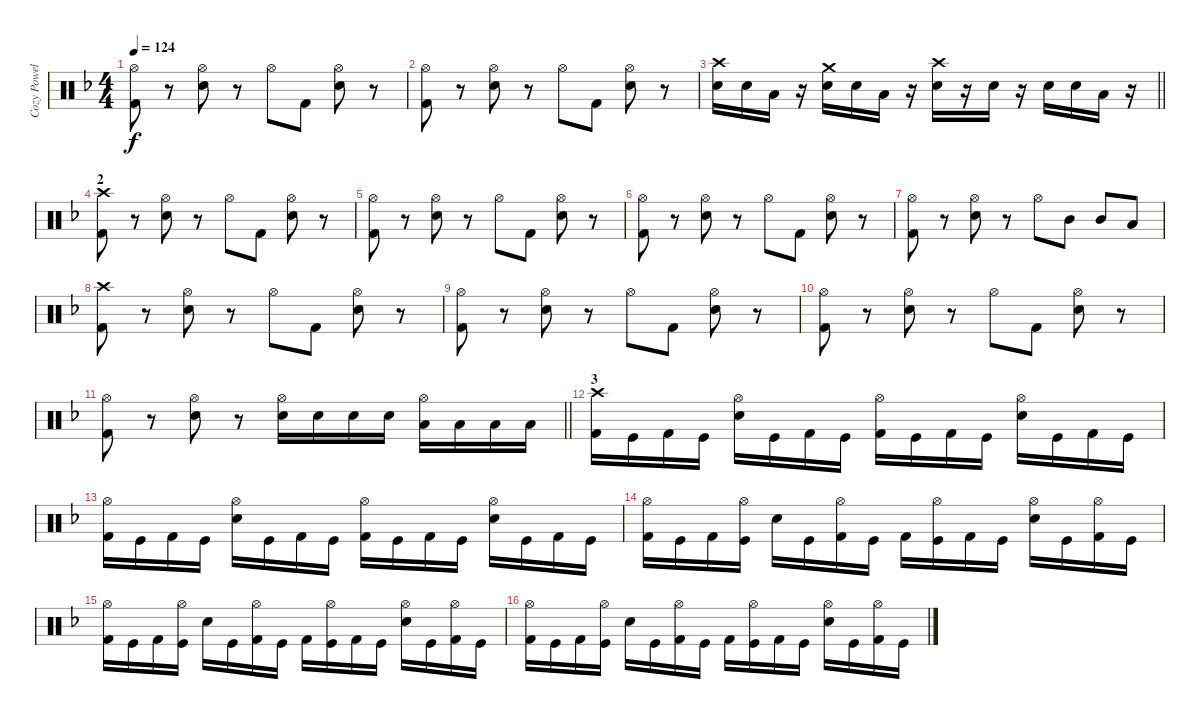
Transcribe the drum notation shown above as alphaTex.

\track ("Cozy Powell" "Cozy Powel") {instrument percussion}
\staff {score}
\articulation defaults
\ts (4 4)
\tempo 124
\clef neutral
\ks f
("Hi-Hat (open)" "Kick (hit) 2").8{dy f} r.8 ("Hi-Hat (open)" "Snare (hit) 2").8 r.8 "Hi-Hat (open)".8 "Kick (hit) 2".8 ("Hi-Hat (open)" "Snare (hit) 2").8 r.8 |
("Hi-Hat (open)" "Kick (hit) 2").8 r.8 ("Hi-Hat (open)" "Snare (hit) 2").8 r.8 "Hi-Hat (open)".8 "Kick (hit) 2".8 ("Hi-Hat (open)" "Snare (hit) 2").8 r.8 |
\barLineRight lightlight
("Snare (hit) 2" "Crash high (hit)").16 "Snare (hit) 2".16 "Low Tom (hit)".16 r.16 ("Snare (hit) 2" "Crash medium (hit)").16 "Snare (hit) 2".16 "Low Tom (hit)".16 r.16 ("Snare (hit) 2" "Crash high (hit)").16 r.16 "Snare (hit) 2".16 r.16 "Snare (hit) 2".16 "Snare (hit) 2".16 "Low Tom (hit)".16 r.16 |
\section ("" "2")
("Crash high (hit)" "Kick (hit) 2").8 r.8 ("Hi-Hat (open)" "Snare (hit) 2").8 r.8 "Hi-Hat (open)".8 "Kick (hit) 2".8 ("Hi-Hat (open)" "Snare (hit) 2").8 r.8 |
("Hi-Hat (open)" "Kick (hit) 2").8 r.8 ("Hi-Hat (open)" "Snare (hit) 2").8 r.8 "Hi-Hat (open)".8 "Kick (hit) 2".8 ("Hi-Hat (open)" "Snare (hit) 2").8 r.8 |
("Hi-Hat (open)" "Kick (hit) 2").8 r.8 ("Hi-Hat (open)" "Snare (hit) 2").8 r.8 "Hi-Hat (open)".8 "Kick (hit) 2".8 ("Hi-Hat (open)" "Snare (hit) 2").8 r.8 |
("Hi-Hat (open)" "Kick (hit) 2").8 r.8 ("Hi-Hat (open)" "Snare (hit) 2").8 r.8 "Hi-Hat (open)".8 "Mid Tom (hit)".8 "Mid Tom (hit)".8 "Low Tom (hit)".8 |
("Crash high (hit)" "Kick (hit) 2").8 r.8 ("Hi-Hat (open)" "Snare (hit) 2").8 r.8 "Hi-Hat (open)".8 "Kick (hit) 2".8 ("Hi-Hat (open)" "Snare (hit) 2").8 r.8 |
("Hi-Hat (open)" "Kick (hit) 2").8 r.8 ("Hi-Hat (open)" "Snare (hit) 2").8 r.8 "Hi-Hat (open)".8 "Kick (hit) 2".8 ("Hi-Hat (open)" "Snare (hit) 2").8 r.8 |
("Hi-Hat (open)" "Kick (hit) 2").8 r.8 ("Hi-Hat (open)" "Snare (hit) 2").8 r.8 "Hi-Hat (open)".8 "Kick (hit) 2".8 ("Hi-Hat (open)" "Snare (hit) 2").8 r.8 |
\barLineRight lightlight
("Hi-Hat (open)" "Kick (hit) 2").8 r.8 ("Hi-Hat (open)" "Snare (hit) 2").8 r.8 ("Hi-Hat (open)" "Snare (hit) 2").16 "Snare (hit) 2".16 "Snare (hit) 2".16 "Snare (hit) 2".16 ("Hi-Hat (open)" "Low Tom (hit)").16 "Low Tom (hit)".16 "Low Tom (hit)".16 "Low Tom (hit)".16 |
\section ("" "3")
("Crash high (hit)" "Kick (hit) 2").16 "Kick (hit)".16 "Kick (hit) 2".16 "Kick (hit)".16 ("Hi-Hat (open)" "Snare (hit) 2").16 "Kick (hit)".16 "Kick (hit) 2".16 "Kick (hit)".16 ("Hi-Hat (open)" "Kick (hit) 2").16 "Kick (hit)".16 "Kick (hit) 2".16 "Kick (hit)".16 ("Hi-Hat (open)" "Snare (hit) 2").16 "Kick (hit)".16 "Kick (hit) 2".16 "Kick (hit)".16 |
("Hi-Hat (open)" "Kick (hit) 2").16 "Kick (hit)".16 "Kick (hit) 2".16 "Kick (hit)".16 ("Hi-Hat (open)" "Snare (hit) 2").16 "Kick (hit)".16 "Kick (hit) 2".16 "Kick (hit)".16 ("Hi-Hat (open)" "Kick (hit) 2").16 "Kick (hit)".16 "Kick (hit) 2".16 "Kick (hit)".16 ("Hi-Hat (open)" "Snare (hit) 2").16 "Kick (hit)".16 "Kick (hit) 2".16 "Kick (hit)".16 |
("Hi-Hat (open)" "Kick (hit) 2").16 "Kick (hit)".16 "Kick (hit) 2".16 ("Kick (hit)" "Hi-Hat (open)").16 "Snare (hit) 2".16 "Kick (hit)".16 ("Kick (hit) 2" "Hi-Hat (open)").16 "Kick (hit)".16 "Kick (hit) 2".16 ("Kick (hit)" "Hi-Hat (open)").16 "Kick (hit) 2".16 "Kick (hit)".16 ("Hi-Hat (open)" "Snare (hit) 2").16 "Kick (hit)".16 ("Kick (hit) 2" "Hi-Hat (open)").16 "Kick (hit)".16 |
("Hi-Hat (open)" "Kick (hit) 2").16 "Kick (hit)".16 "Kick (hit) 2".16 ("Kick (hit)" "Hi-Hat (open)").16 "Snare (hit) 2".16 "Kick (hit)".16 ("Kick (hit) 2" "Hi-Hat (open)").16 "Kick (hit)".16 "Kick (hit) 2".16 ("Kick (hit)" "Hi-Hat (open)").16 "Kick (hit) 2".16 "Kick (hit)".16 ("Hi-Hat (open)" "Snare (hit) 2").16 "Kick (hit)".16 ("Kick (hit) 2" "Hi-Hat (open)").16 "Kick (hit)".16 |
("Hi-Hat (open)" "Kick (hit) 2").16 "Kick (hit)".16 "Kick (hit) 2".16 ("Kick (hit)" "Hi-Hat (open)").16 "Snare (hit) 2".16 "Kick (hit)".16 ("Kick (hit) 2" "Hi-Hat (open)").16 "Kick (hit)".16 "Kick (hit) 2".16 ("Kick (hit)" "Hi-Hat (open)").16 "Kick (hit) 2".16 "Kick (hit)".16 ("Hi-Hat (open)" "Snare (hit) 2").16 "Kick (hit)".16 ("Kick (hit) 2" "Hi-Hat (open)").16 "Kick (hit)".16
